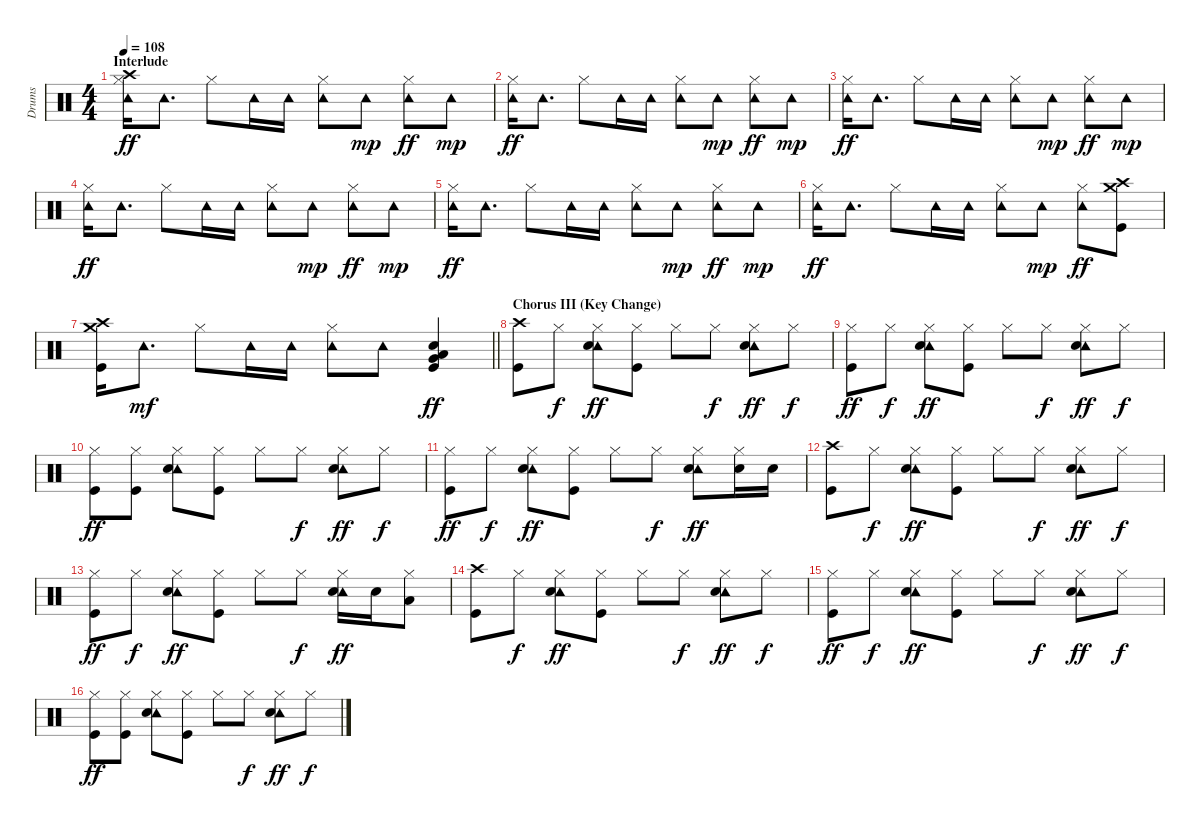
\track ("Drums" "Drums") {instrument percussion}
\staff {score}
\articulation defaults
\ts (4 4)
\section ("" "Interlude")
\tempo 108
\clef neutral
\ks c
("Tambourine (hit)" "Hi-Hat (closed)" "Crash high (hit)").16{dy ff} "Tambourine (hit)".8{d} "Hi-Hat (closed)".8 "Tambourine (hit)".16 "Tambourine (hit)".16 ("Tambourine (hit)" "Hi-Hat (closed)").8 "Tambourine (hit)".8{dy mp} ("Tambourine (hit)" "Hi-Hat (closed)").8{dy ff} "Tambourine (hit)".8{dy mp} |
("Tambourine (hit)" "Hi-Hat (closed)").16{dy ff} "Tambourine (hit)".8{d} "Hi-Hat (closed)".8 "Tambourine (hit)".16 "Tambourine (hit)".16 ("Tambourine (hit)" "Hi-Hat (closed)").8 "Tambourine (hit)".8{dy mp} ("Tambourine (hit)" "Hi-Hat (closed)").8{dy ff} "Tambourine (hit)".8{dy mp} |
("Tambourine (hit)" "Hi-Hat (closed)").16{dy ff} "Tambourine (hit)".8{d} "Hi-Hat (closed)".8 "Tambourine (hit)".16 "Tambourine (hit)".16 ("Tambourine (hit)" "Hi-Hat (closed)").8 "Tambourine (hit)".8{dy mp} ("Tambourine (hit)" "Hi-Hat (closed)").8{dy ff} "Tambourine (hit)".8{dy mp} |
("Tambourine (hit)" "Hi-Hat (closed)").16{dy ff} "Tambourine (hit)".8{d} "Hi-Hat (closed)".8 "Tambourine (hit)".16 "Tambourine (hit)".16 ("Tambourine (hit)" "Hi-Hat (closed)").8 "Tambourine (hit)".8{dy mp} ("Tambourine (hit)" "Hi-Hat (closed)").8{dy ff} "Tambourine (hit)".8{dy mp} |
("Tambourine (hit)" "Hi-Hat (closed)").16{dy ff} "Tambourine (hit)".8{d} "Hi-Hat (closed)".8 "Tambourine (hit)".16 "Tambourine (hit)".16 ("Tambourine (hit)" "Hi-Hat (closed)").8 "Tambourine (hit)".8{dy mp} ("Tambourine (hit)" "Hi-Hat (closed)").8{dy ff} "Tambourine (hit)".8{dy mp} |
("Tambourine (hit)" "Hi-Hat (closed)").16{dy ff} "Tambourine (hit)".8{d} "Hi-Hat (closed)".8 "Tambourine (hit)".16 "Tambourine (hit)".16 ("Tambourine (hit)" "Hi-Hat (closed)").8 "Tambourine (hit)".8{dy mp} ("Tambourine (hit)" "Hi-Hat (closed)").8{dy ff} ("Crash high (hit)" "Crash medium (hit)" "Kick (hit)").8 |
\barLineRight lightlight
("Crash high (hit)" "Crash medium (hit)" "Kick (hit)").16 "Tambourine (hit)".8{d dy mf} "Hi-Hat (closed)".8 "Tambourine (hit)".16 "Tambourine (hit)".16 ("Tambourine (hit)" "Hi-Hat (closed)").8 "Tambourine (hit)".8 ("Electric Snare (hit)" "Very Low Tom (hit)" "Low Floor Tom (hit)" "Kick (hit)").4{dy ff} |
\section ("" "Chorus III (Key Change)")
("Crash high (hit)" "Kick (hit)").8 "Hi-Hat (closed)".8{dy f} ("Hi-Hat (closed)" "Tambourine (hit)" "Electric Snare (hit)").8{dy ff} ("Hi-Hat (closed)" "Kick (hit)").8 "Hi-Hat (closed)".8 "Hi-Hat (closed)".8{dy f} ("Hi-Hat (closed)" "Tambourine (hit)" "Electric Snare (hit)").8{dy ff} "Hi-Hat (closed)".8{dy f} |
("Hi-Hat (closed)" "Kick (hit)").8{dy ff} "Hi-Hat (closed)".8{dy f} ("Hi-Hat (closed)" "Tambourine (hit)" "Electric Snare (hit)").8{dy ff} ("Hi-Hat (closed)" "Kick (hit)").8 "Hi-Hat (closed)".8 "Hi-Hat (closed)".8{dy f} ("Hi-Hat (closed)" "Tambourine (hit)" "Electric Snare (hit)").8{dy ff} "Hi-Hat (closed)".8{dy f} |
("Hi-Hat (closed)" "Kick (hit)").8{dy ff} ("Hi-Hat (closed)" "Kick (hit)").8 ("Hi-Hat (closed)" "Tambourine (hit)" "Electric Snare (hit)").8 ("Hi-Hat (closed)" "Kick (hit)").8 "Hi-Hat (closed)".8 "Hi-Hat (closed)".8{dy f} ("Hi-Hat (closed)" "Tambourine (hit)" "Electric Snare (hit)").8{dy ff} "Hi-Hat (closed)".8{dy f} |
("Hi-Hat (closed)" "Kick (hit)").8{dy ff} "Hi-Hat (closed)".8{dy f} ("Hi-Hat (closed)" "Tambourine (hit)" "Electric Snare (hit)").8{dy ff} ("Hi-Hat (closed)" "Kick (hit)").8 "Hi-Hat (closed)".8 "Hi-Hat (closed)".8{dy f} ("Hi-Hat (closed)" "Tambourine (hit)" "Electric Snare (hit)").8{dy ff} ("Hi-Hat (closed)" "Electric Snare (hit)").16 "Electric Snare (hit)".16 |
("Crash high (hit)" "Kick (hit)").8 "Hi-Hat (closed)".8{dy f} ("Hi-Hat (closed)" "Tambourine (hit)" "Electric Snare (hit)").8{dy ff} ("Hi-Hat (closed)" "Kick (hit)").8 "Hi-Hat (closed)".8 "Hi-Hat (closed)".8{dy f} ("Hi-Hat (closed)" "Tambourine (hit)" "Electric Snare (hit)").8{dy ff} "Hi-Hat (closed)".8{dy f} |
("Hi-Hat (closed)" "Kick (hit)").8{dy ff} "Hi-Hat (closed)".8{dy f} ("Hi-Hat (closed)" "Tambourine (hit)" "Electric Snare (hit)").8{dy ff} ("Hi-Hat (closed)" "Kick (hit)").8 "Hi-Hat (closed)".8 "Hi-Hat (closed)".8{dy f} ("Hi-Hat (closed)" "Tambourine (hit)" "Electric Snare (hit)").16{dy ff} "Electric Snare (hit)".16 ("Hi-Hat (closed)" "Low Tom (hit)").8 |
("Crash high (hit)" "Kick (hit)").8 "Hi-Hat (closed)".8{dy f} ("Hi-Hat (closed)" "Tambourine (hit)" "Electric Snare (hit)").8{dy ff} ("Hi-Hat (closed)" "Kick (hit)").8 "Hi-Hat (closed)".8 "Hi-Hat (closed)".8{dy f} ("Hi-Hat (closed)" "Tambourine (hit)" "Electric Snare (hit)").8{dy ff} "Hi-Hat (closed)".8{dy f} |
("Hi-Hat (closed)" "Kick (hit)").8{dy ff} "Hi-Hat (closed)".8{dy f} ("Hi-Hat (closed)" "Tambourine (hit)" "Electric Snare (hit)").8{dy ff} ("Hi-Hat (closed)" "Kick (hit)").8 "Hi-Hat (closed)".8 "Hi-Hat (closed)".8{dy f} ("Hi-Hat (closed)" "Tambourine (hit)" "Electric Snare (hit)").8{dy ff} "Hi-Hat (closed)".8{dy f} |
("Hi-Hat (closed)" "Kick (hit)").8{dy ff} ("Hi-Hat (closed)" "Kick (hit)").8 ("Hi-Hat (closed)" "Tambourine (hit)" "Electric Snare (hit)").8 ("Hi-Hat (closed)" "Kick (hit)").8 "Hi-Hat (closed)".8 "Hi-Hat (closed)".8{dy f} ("Hi-Hat (closed)" "Tambourine (hit)" "Electric Snare (hit)").8{dy ff} "Hi-Hat (closed)".8{dy f}
